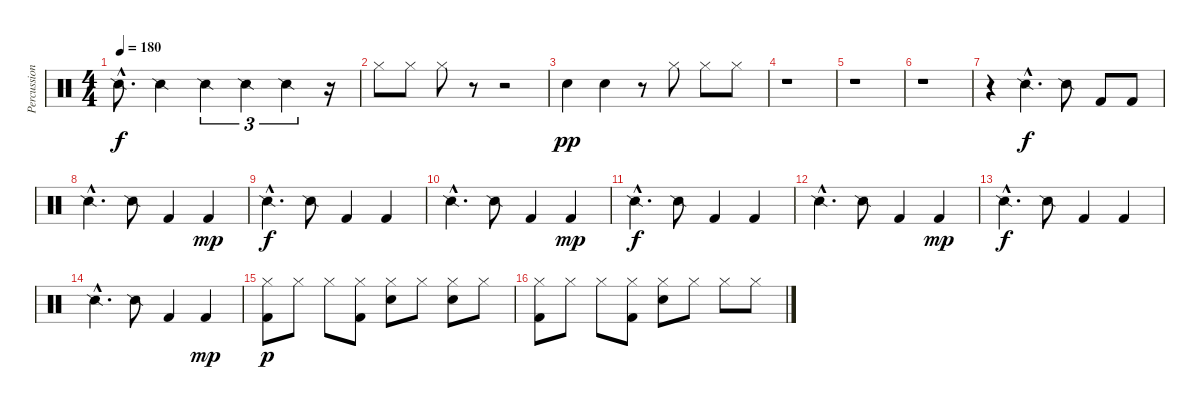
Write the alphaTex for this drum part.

\track ("Percussions" "Percussion") {instrument percussion}
\staff {score}
\articulation defaults
\ts (4 4)
\tempo 180
\clef neutral
\ks c "Snare (side stick) 2"{hac}.8{d dy f} "Snare (side stick) 2".4 "Snare (side stick) 2".4{tu (3 2)} "Snare (side stick) 2".4{tu (3 2)} "Snare (side stick) 2".4{tu (3 2)}
r.16 |
"Hi-Hat (closed)".8 "Hi-Hat (closed)".8 "Hi-Hat (closed)".8 r.8 r.2 |
"Snare (hit) 2".4{dy pp} "Snare (hit) 2".4 r.8 "Hi-Hat (closed)".8 "Hi-Hat (closed)".8 "Hi-Hat (closed)".8 |
r.1 |
r.1 |
r.1 |
r.4 "Snare (side stick) 2"{hac}.4{d dy f} "Snare (side stick) 2".8 "Kick (hit) 2".8 "Kick (hit) 2".8 |
"Snare (side stick) 2"{hac}.4{d} "Snare (side stick) 2".8 "Kick (hit) 2".4 "Kick (hit) 2".4{dy mp} |
"Snare (side stick) 2"{hac}.4{d dy f} "Snare (side stick) 2".8 "Kick (hit) 2".4 "Kick (hit) 2".4 |
"Snare (side stick) 2"{hac}.4{d} "Snare (side stick) 2".8 "Kick (hit) 2".4 "Kick (hit) 2".4{dy mp} |
"Snare (side stick) 2"{hac}.4{d dy f} "Snare (side stick) 2".8 "Kick (hit) 2".4 "Kick (hit) 2".4 |
"Snare (side stick) 2"{hac}.4{d} "Snare (side stick) 2".8 "Kick (hit) 2".4 "Kick (hit) 2".4{dy mp} |
"Snare (side stick) 2"{hac}.4{d dy f} "Snare (side stick) 2".8 "Kick (hit) 2".4 "Kick (hit) 2".4 |
"Snare (side stick) 2"{hac}.4{d} "Snare (side stick) 2".8 "Kick (hit) 2".4 "Kick (hit) 2".4{dy mp} |
("Hi-Hat (closed)" "Kick (hit) 2").8{dy p} "Hi-Hat (closed)".8 "Hi-Hat (closed)".8 ("Hi-Hat (closed)" "Kick (hit) 2").8 ("Hi-Hat (closed)" "Electric Snare (hit)").8 "Hi-Hat (closed)".8 ("Hi-Hat (closed)" "Electric Snare (hit)").8 "Hi-Hat (closed)".8 |
("Hi-Hat (closed)" "Kick (hit) 2").8 "Hi-Hat (closed)".8 "Hi-Hat (closed)".8 ("Hi-Hat (closed)" "Kick (hit) 2").8 ("Hi-Hat (closed)" "Electric Snare (hit)").8 "Hi-Hat (closed)".8 "Hi-Hat (closed)".8 "Hi-Hat (closed)".8
